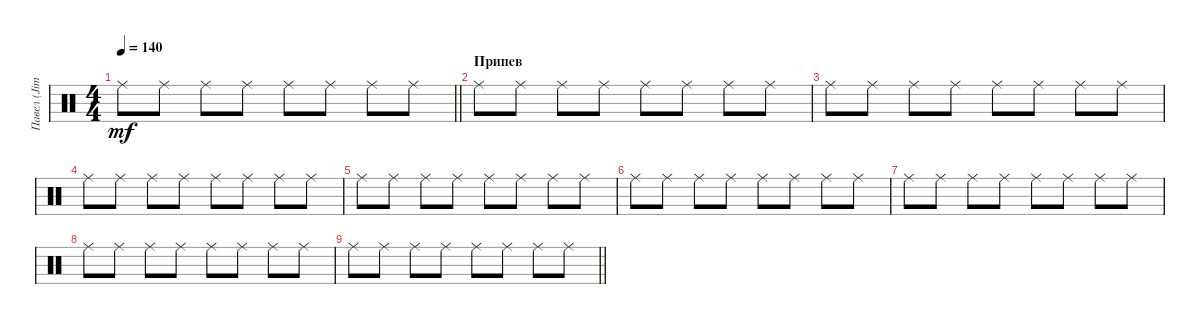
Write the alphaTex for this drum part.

\track ("Павел (Jimmy) Лохнин" "Павел (Jim") {instrument percussion}
\staff {score}
\articulation defaults
\ts (4 4)
\tempo 140
\clef neutral
\barLineRight lightlight
\ks c "Ride (middle)".8{dy mf} "Ride (middle)".8 "Ride (middle)".8 "Ride (middle)".8 "Ride (middle)".8 "Ride (middle)".8 "Ride (middle)".8 "Ride (middle)".8
|
\section ("" "Припев")
"Ride (middle)".8 "Ride (middle)".8 "Ride (middle)".8 "Ride (middle)".8 "Ride (middle)".8 "Ride (middle)".8 "Ride (middle)".8 "Ride (middle)".8 |
"Ride (middle)".8 "Ride (middle)".8 "Ride (middle)".8 "Ride (middle)".8 "Ride (middle)".8 "Ride (middle)".8 "Ride (middle)".8 "Ride (middle)".8 |
"Ride (middle)".8 "Ride (middle)".8 "Ride (middle)".8 "Ride (middle)".8 "Ride (middle)".8 "Ride (middle)".8 "Ride (middle)".8 "Ride (middle)".8 |
"Ride (middle)".8 "Ride (middle)".8 "Ride (middle)".8 "Ride (middle)".8 "Ride (middle)".8 "Ride (middle)".8 "Ride (middle)".8 "Ride (middle)".8 |
"Ride (middle)".8 "Ride (middle)".8 "Ride (middle)".8 "Ride (middle)".8 "Ride (middle)".8 "Ride (middle)".8 "Ride (middle)".8 "Ride (middle)".8 |
"Ride (middle)".8 "Ride (middle)".8 "Ride (middle)".8 "Ride (middle)".8 "Ride (middle)".8 "Ride (middle)".8 "Ride (middle)".8 "Ride (middle)".8 |
"Ride (middle)".8 "Ride (middle)".8 "Ride (middle)".8 "Ride (middle)".8 "Ride (middle)".8 "Ride (middle)".8 "Ride (middle)".8 "Ride (middle)".8 |
\barLineRight lightlight "Ride (middle)".8 "Ride (middle)".8 "Ride (middle)".8 "Ride (middle)".8 "Ride (middle)".8 "Ride (middle)".8 "Ride (middle)".8 "Ride (middle)".8
